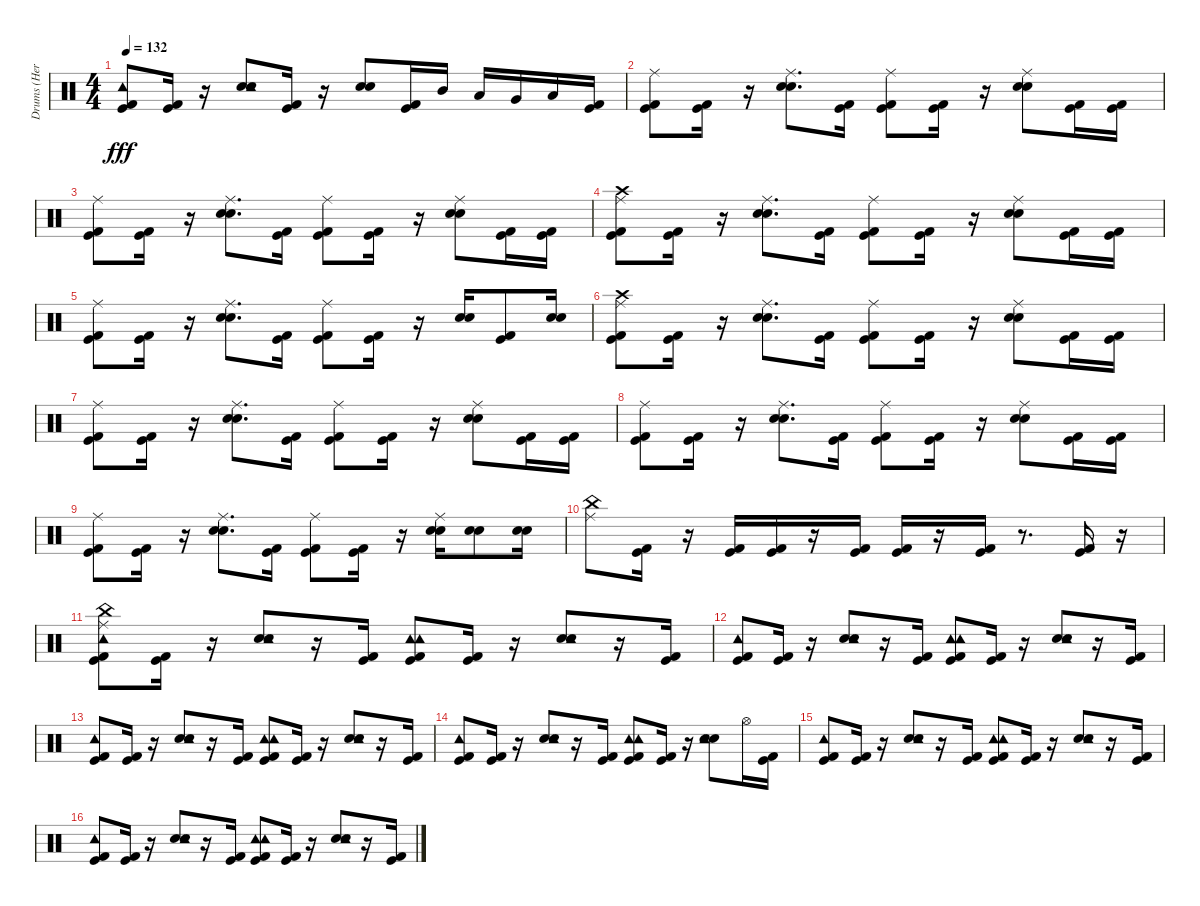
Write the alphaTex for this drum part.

\track ("Drums (Herb Alexander)" "Drums (Her") {instrument percussion}
\staff {score}
\articulation defaults
\ts (4 4)
\tempo 132
\clef neutral
\ks c
("Tambourine (hit)" "Kick (hit)" "Kick (hit) 2").8{dy fff} ("Kick (hit)" "Kick (hit) 2").16 r.16 ("Snare (hit) 2" "Hand Clap (hit)" "Tambourine (hit)").8 ("Kick (hit)" "Kick (hit) 2").16 r.16 ("Snare (hit) 2" "Hand Clap (hit)").8 ("Kick (hit)" "Kick (hit) 2").16 "Mid Tom (hit)".16 "Low Tom (hit)".16 "Very Low Tom (hit)".16 "Low Floor Tom (hit)".16 ("Kick (hit) 2" "Kick (hit)").16 |
("Ride (middle)" "Kick (hit)" "Kick (hit) 2").8 ("Kick (hit)" "Kick (hit) 2").16 r.16 ("Ride (middle)" "Snare (hit) 2" "Hand Clap (hit)").8{d} ("Kick (hit)" "Kick (hit) 2").16 ("Ride (middle)" "Kick (hit)" "Kick (hit) 2").8 ("Kick (hit)" "Kick (hit) 2").16 r.16 ("Ride (middle)" "Snare (hit) 2" "Hand Clap (hit)").8 ("Kick (hit)" "Kick (hit) 2").16 ("Kick (hit)" "Kick (hit) 2").16 |
("Kick (hit)" "Kick (hit) 2" "Ride (middle)").8 ("Kick (hit)" "Kick (hit) 2").16 r.16 ("Snare (hit) 2" "Hand Clap (hit)" "Ride (middle)").8{d} ("Kick (hit)" "Kick (hit) 2").16 ("Kick (hit)" "Kick (hit) 2" "Ride (middle)").8 ("Kick (hit)" "Kick (hit) 2").16 r.16 ("Snare (hit) 2" "Hand Clap (hit)" "Ride (middle)").8 ("Kick (hit)" "Kick (hit) 2").16 ("Kick (hit)" "Kick (hit) 2").16 |
("Crash high (hit)" "Kick (hit)" "Kick (hit) 2" "Ride (middle)").8 ("Kick (hit)" "Kick (hit) 2").16 r.16 ("Snare (hit) 2" "Hand Clap (hit)" "Ride (middle)").8{d} ("Kick (hit)" "Kick (hit) 2").16 ("Kick (hit)" "Kick (hit) 2" "Ride (middle)").8 ("Kick (hit)" "Kick (hit) 2").16 r.16 ("Snare (hit) 2" "Hand Clap (hit)" "Ride (middle)").8 ("Kick (hit)" "Kick (hit) 2").16 ("Kick (hit)" "Kick (hit) 2").16 |
("Kick (hit)" "Kick (hit) 2" "Ride (middle)").8 ("Kick (hit)" "Kick (hit) 2").16 r.16 ("Snare (hit) 2" "Hand Clap (hit)" "Ride (middle)").8{d} ("Kick (hit)" "Kick (hit) 2").16 ("Kick (hit)" "Kick (hit) 2" "Ride (middle)").8 ("Kick (hit)" "Kick (hit) 2").16 r.16 ("Hand Clap (hit)" "Snare (hit) 2").16 ("Kick (hit) 2" "Kick (hit)").8 ("Hand Clap (hit)" "Snare (hit) 2").16 |
("Kick (hit)" "Kick (hit) 2" "Ride (middle)" "Crash high (hit)").8 ("Kick (hit)" "Kick (hit) 2").16 r.16 ("Snare (hit) 2" "Hand Clap (hit)" "Ride (middle)").8{d} ("Kick (hit)" "Kick (hit) 2").16 ("Kick (hit)" "Kick (hit) 2" "Ride (middle)").8 ("Kick (hit)" "Kick (hit) 2").16 r.16 ("Snare (hit) 2" "Hand Clap (hit)" "Ride (middle)").8 ("Kick (hit)" "Kick (hit) 2").16 ("Kick (hit)" "Kick (hit) 2").16 |
("Kick (hit)" "Kick (hit) 2" "Ride (middle)").8 ("Kick (hit)" "Kick (hit) 2").16 r.16 ("Snare (hit) 2" "Hand Clap (hit)" "Ride (middle)").8{d} ("Kick (hit)" "Kick (hit) 2").16 ("Kick (hit)" "Kick (hit) 2" "Ride (middle)").8 ("Kick (hit)" "Kick (hit) 2").16 r.16 ("Snare (hit) 2" "Hand Clap (hit)" "Ride (middle)").8 ("Kick (hit)" "Kick (hit) 2").16 ("Kick (hit)" "Kick (hit) 2").16 |
("Kick (hit)" "Kick (hit) 2" "Ride (middle)").8 ("Kick (hit)" "Kick (hit) 2").16 r.16 ("Snare (hit) 2" "Hand Clap (hit)" "Ride (middle)").8{d} ("Kick (hit)" "Kick (hit) 2").16 ("Kick (hit)" "Kick (hit) 2" "Ride (middle)").8 ("Kick (hit)" "Kick (hit) 2").16 r.16 ("Snare (hit) 2" "Hand Clap (hit)" "Ride (middle)").8 ("Kick (hit)" "Kick (hit) 2").16 ("Kick (hit)" "Kick (hit) 2").16 |
("Kick (hit)" "Kick (hit) 2" "Ride (middle)").8 ("Kick (hit)" "Kick (hit) 2").16 r.16 ("Snare (hit) 2" "Hand Clap (hit)" "Ride (middle)").8{d} ("Kick (hit)" "Kick (hit) 2").16 ("Kick (hit)" "Kick (hit) 2" "Ride (middle)").8 ("Kick (hit)" "Kick (hit) 2").16 r.16 ("Snare (hit) 2" "Hand Clap (hit)" "Ride (middle)").16 ("Snare (hit) 2" "Hand Clap (hit)").8 ("Hand Clap (hit)" "Snare (hit) 2").16 |
("China (hit)" "Ride (middle)").8 ("Kick (hit)" "Kick (hit) 2").16 r.16 ("Kick (hit)" "Kick (hit) 2").16 ("Kick (hit)" "Kick (hit) 2").16 r.16 ("Kick (hit)" "Kick (hit) 2").16 ("Kick (hit)" "Kick (hit) 2").16 r.16 ("Kick (hit)" "Kick (hit) 2").16 r.8{d} ("Kick (hit)" "Kick (hit) 2").16 r.16 |
("Tambourine (hit)" "Kick (hit)" "Kick (hit) 2" "China (hit)" "Ride (middle)").8 ("Kick (hit)" "Kick (hit) 2").16 r.16 ("Snare (hit) 2" "Hand Clap (hit)" "Tambourine (hit)").8 r.16 ("Kick (hit)" "Kick (hit) 2").16 ("Tambourine (hit)" "Kick (hit)" "Kick (hit) 2" "Tambourine (hit)").8 ("Kick (hit)" "Kick (hit) 2").16 r.16 ("Snare (hit) 2" "Hand Clap (hit)" "Tambourine (hit)").8 r.16 ("Kick (hit)" "Kick (hit) 2").16 |
("Tambourine (hit)" "Kick (hit)" "Kick (hit) 2").8 ("Kick (hit)" "Kick (hit) 2").16 r.16 ("Snare (hit) 2" "Hand Clap (hit)" "Tambourine (hit)").8 r.16 ("Kick (hit)" "Kick (hit) 2").16 ("Tambourine (hit)" "Kick (hit)" "Kick (hit) 2" "Tambourine (hit)").8 ("Kick (hit)" "Kick (hit) 2").16 r.16 ("Snare (hit) 2" "Hand Clap (hit)" "Tambourine (hit)").8 r.16 ("Kick (hit)" "Kick (hit) 2").16 |
("Tambourine (hit)" "Kick (hit)" "Kick (hit) 2").8 ("Kick (hit)" "Kick (hit) 2").16 r.16 ("Snare (hit) 2" "Hand Clap (hit)" "Tambourine (hit)").8 r.16 ("Kick (hit)" "Kick (hit) 2").16 ("Tambourine (hit)" "Kick (hit)" "Kick (hit) 2" "Tambourine (hit)").8 ("Kick (hit)" "Kick (hit) 2").16 r.16 ("Snare (hit) 2" "Hand Clap (hit)" "Tambourine (hit)").8 r.16 ("Kick (hit)" "Kick (hit) 2").16 |
("Tambourine (hit)" "Kick (hit)" "Kick (hit) 2").8 ("Kick (hit)" "Kick (hit) 2").16 r.16 ("Snare (hit) 2" "Hand Clap (hit)" "Tambourine (hit)").8 r.16 ("Kick (hit)" "Kick (hit) 2").16 ("Tambourine (hit)" "Kick (hit)" "Kick (hit) 2" "Tambourine (hit)").8 ("Kick (hit)" "Kick (hit) 2").16 r.16 ("Snare (hit) 2" "Hand Clap (hit)" "Tambourine (hit)").8 "Hi-Hat (open)".16 ("Kick (hit)" "Kick (hit) 2").16 |
("Tambourine (hit)" "Kick (hit)" "Kick (hit) 2").8 ("Kick (hit)" "Kick (hit) 2").16 r.16 ("Snare (hit) 2" "Hand Clap (hit)" "Tambourine (hit)").8 r.16 ("Kick (hit)" "Kick (hit) 2").16 ("Tambourine (hit)" "Kick (hit)" "Kick (hit) 2" "Tambourine (hit)").8 ("Kick (hit)" "Kick (hit) 2").16 r.16 ("Snare (hit) 2" "Hand Clap (hit)" "Tambourine (hit)").8 r.16 ("Kick (hit)" "Kick (hit) 2").16 |
("Tambourine (hit)" "Kick (hit)" "Kick (hit) 2").8 ("Kick (hit)" "Kick (hit) 2").16 r.16 ("Snare (hit) 2" "Hand Clap (hit)" "Tambourine (hit)").8 r.16 ("Kick (hit)" "Kick (hit) 2").16 ("Tambourine (hit)" "Kick (hit)" "Kick (hit) 2" "Tambourine (hit)").8 ("Kick (hit)" "Kick (hit) 2").16 r.16 ("Snare (hit) 2" "Hand Clap (hit)" "Tambourine (hit)").8 r.16 ("Kick (hit)" "Kick (hit) 2").16
